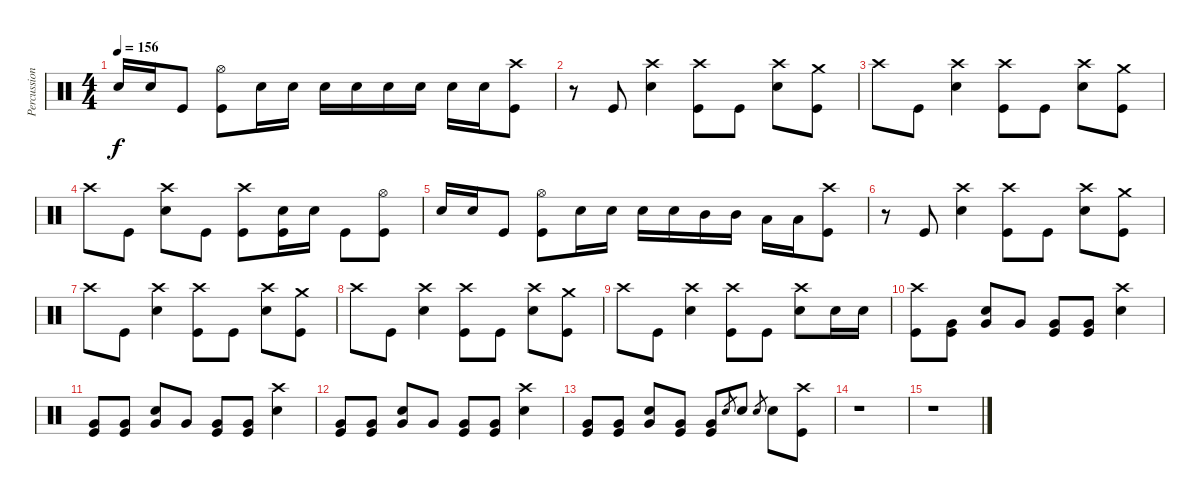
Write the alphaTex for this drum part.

\track ("Percussion" "Percussion") {instrument percussion}
\staff {score}
\articulation defaults
\ts (4 4)
\tempo 156
\clef neutral
\ks c "Snare (hit) 2".16{dy f} "Snare (hit) 2".16 "Kick (hit)".8
("Hi-Hat (open)" "Kick (hit)").8 "Snare (hit) 2".16 "Snare (hit) 2".16 "Snare (hit) 2".16 "Snare (hit) 2".16 "Snare (hit) 2".16 "Snare (hit) 2".16 "Snare (hit) 2".16 "Snare (hit) 2".16 ("Crash high (hit)" "Kick (hit)").8 |
r.8 "Kick (hit)".8 ("Crash high (hit)" "Snare (hit) 2").4 ("Crash high (hit)" "Kick (hit)").8 "Kick (hit)".8 ("Crash high (hit)" "Snare (hit) 2").8 ("Crash medium (hit)" "Kick (hit)").8 |
"Crash high (hit)".8 "Kick (hit)".8 ("Crash high (hit)" "Snare (hit) 2").4 ("Crash high (hit)" "Kick (hit)").8 "Kick (hit)".8 ("Crash high (hit)" "Snare (hit) 2").8 ("Crash medium (hit)" "Kick (hit)").8 |
"Crash high (hit)".8 "Kick (hit)".8 ("Crash high (hit)" "Snare (hit) 2").8 "Kick (hit)".8 ("Crash high (hit)" "Kick (hit)").8 ("Snare (hit) 2" "Kick (hit)").16 "Snare (hit) 2".16 "Kick (hit)".8 ("Hi-Hat (open)" "Kick (hit)").8 |
"Snare (hit) 2".16 "Snare (hit) 2".16 "Kick (hit)".8 ("Hi-Hat (open)" "Kick (hit)").8 "Snare (hit) 2".16 "Snare (hit) 2".16 "Snare (hit) 2".16 "Snare (hit) 2".16 "Mid Tom (hit)".16 "Mid Tom (hit)".16 "Low Tom (hit)".16 "Low Tom (hit)".16 ("Crash high (hit)" "Kick (hit)").8 |
r.8 "Kick (hit)".8 ("Crash high (hit)" "Snare (hit) 2").4 ("Crash high (hit)" "Kick (hit)").8 "Kick (hit)".8 ("Crash high (hit)" "Snare (hit) 2").8 ("Crash medium (hit)" "Kick (hit)").8 |
"Crash high (hit)".8 "Kick (hit)".8 ("Crash high (hit)" "Snare (hit) 2").4 ("Crash high (hit)" "Kick (hit)").8 "Kick (hit)".8 ("Crash high (hit)" "Snare (hit) 2").8 ("Crash medium (hit)" "Kick (hit)").8 |
"Crash high (hit)".8 "Kick (hit)".8 ("Crash high (hit)" "Snare (hit) 2").4 ("Crash high (hit)" "Kick (hit)").8 "Kick (hit)".8 ("Crash high (hit)" "Snare (hit) 2").8 ("Crash medium (hit)" "Kick (hit)").8 |
"Crash high (hit)".8 "Kick (hit)".8 ("Crash high (hit)" "Snare (hit) 2").4 ("Crash high (hit)" "Kick (hit)").8 "Kick (hit)".8 ("Crash high (hit)" "Snare (hit) 2").8 "Snare (hit) 2".16 "Snare (hit) 2".16 |
("Crash high (hit)" "Kick (hit)").8 ("Very Low Tom (hit)" "Kick (hit)").8 ("Snare (hit) 2" "Very Low Tom (hit)").8 "Very Low Tom (hit)".8 ("Very Low Tom (hit)" "Kick (hit)").8 ("Very Low Tom (hit)" "Kick (hit)").8 ("Crash high (hit)" "Snare (hit) 2").4 |
("Very Low Tom (hit)" "Kick (hit)").8 ("Very Low Tom (hit)" "Kick (hit)").8 ("Snare (hit) 2" "Very Low Tom (hit)").8 "Very Low Tom (hit)".8 ("Very Low Tom (hit)" "Kick (hit)").8 ("Very Low Tom (hit)" "Kick (hit)").8 ("Crash high (hit)" "Snare (hit) 2").4 |
("Very Low Tom (hit)" "Kick (hit)").8 ("Very Low Tom (hit)" "Kick (hit)").8 ("Snare (hit) 2" "Very Low Tom (hit)").8 "Very Low Tom (hit)".8 ("Very Low Tom (hit)" "Kick (hit)").8 ("Very Low Tom (hit)" "Kick (hit)").8 ("Crash high (hit)" "Snare (hit) 2").4 |
("Very Low Tom (hit)" "Kick (hit)").8 ("Very Low Tom (hit)" "Kick (hit)").8 ("Snare (hit) 2" "Very Low Tom (hit)").8 ("Very Low Tom (hit)" "Kick (hit)").8 ("Very Low Tom (hit)" "Kick (hit)").8 "Snare (hit) 2".8{gr} "Snare (hit) 2".8 "Snare (hit) 2".8{gr} "Snare (hit) 2".8 ("Crash high (hit)" "Kick (hit)").8 |
r.1 |
r.1
